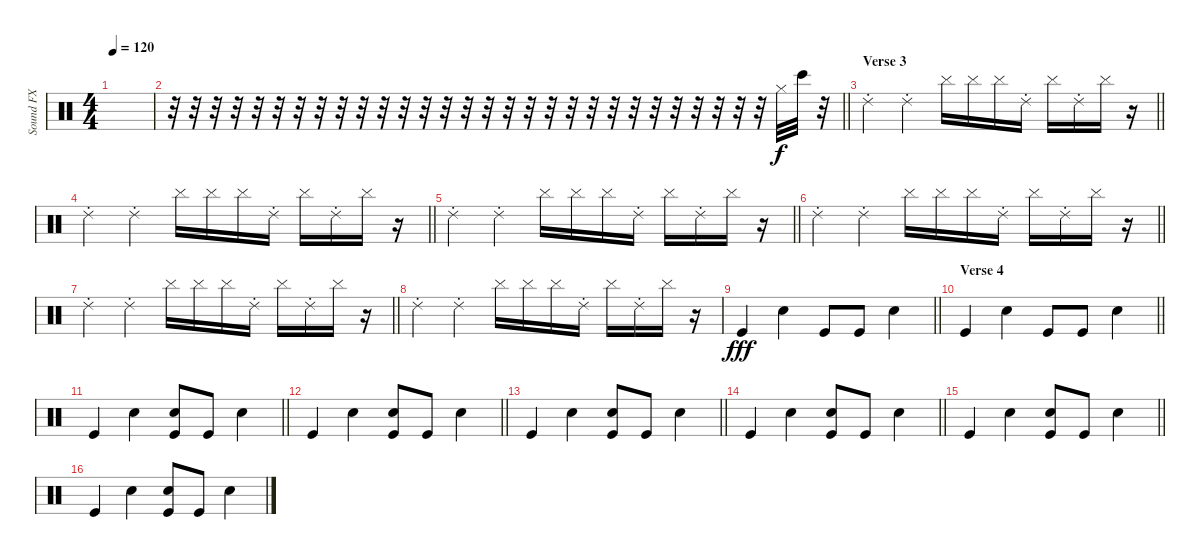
\track ("Sound FX" "Sound FX") {instrument percussion}
\staff {score}
\articulation defaults
\ts (4 4)
\tempo 120
\clef neutral
\ks c
|
\barLineRight lightlight
r.32 r.32 r.32 r.32 r.32 r.32 r.32 r.32 r.32 r.32 r.32 r.32 r.32 r.32 r.32 r.32 r.32 r.32 r.32 r.32 r.32 r.32 r.32 r.32 r.32 r.32 r.32 r.32 r.32 "Hi-Hat (closed)".32 "Bongo High (hit)".32 r.32 |
\section ("" "Verse 3")
\barLineRight lightlight "Ride (choke) 2".4 "Ride (choke) 2".4 "Cymbal (hit)".16 "Cymbal (hit)".16 "Cymbal (hit)".16 "Ride (choke) 2".16 "Cymbal (hit)".16 "Ride (choke) 2".16 "Cymbal (hit)".16
r.16 |
\barLineRight lightlight "Ride (choke) 2".4 "Ride (choke) 2".4 "Cymbal (hit)".16 "Cymbal (hit)".16 "Cymbal (hit)".16 "Ride (choke) 2".16 "Cymbal (hit)".16 "Ride (choke) 2".16 "Cymbal (hit)".16
r.16 |
\barLineRight lightlight "Ride (choke) 2".4 "Ride (choke) 2".4 "Cymbal (hit)".16 "Cymbal (hit)".16 "Cymbal (hit)".16 "Ride (choke) 2".16 "Cymbal (hit)".16 "Ride (choke) 2".16 "Cymbal (hit)".16
r.16 |
\barLineRight lightlight "Ride (choke) 2".4 "Ride (choke) 2".4 "Cymbal (hit)".16 "Cymbal (hit)".16 "Cymbal (hit)".16 "Ride (choke) 2".16 "Cymbal (hit)".16 "Ride (choke) 2".16 "Cymbal (hit)".16
r.16 |
\barLineRight lightlight "Ride (choke) 2".4 "Ride (choke) 2".4 "Cymbal (hit)".16 "Cymbal (hit)".16 "Cymbal (hit)".16 "Ride (choke) 2".16 "Cymbal (hit)".16 "Ride (choke) 2".16 "Cymbal (hit)".16
r.16 |
"Ride (choke) 2".4 "Ride (choke) 2".4 "Cymbal (hit)".16 "Cymbal (hit)".16 "Cymbal (hit)".16 "Ride (choke) 2".16 "Cymbal (hit)".16 "Ride (choke) 2".16 "Cymbal (hit)".16 r.16 |
\barLineRight lightlight "Kick (hit)".4{dy fff} "Hand Clap (hit)".4 "Kick (hit)".8 "Kick (hit)".8 "Hand Clap (hit)".4
|
\section ("" "Verse 4")
\barLineRight lightlight "Kick (hit)".4 "Hand Clap (hit)".4 "Kick (hit)".8 "Kick (hit)".8 "Hand Clap (hit)".4
|
\barLineRight lightlight "Kick (hit)".4 "Hand Clap (hit)".4
("Metronome (bell)" "Kick (hit)").8 "Kick (hit)".8 "Hand Clap (hit)".4 |
\barLineRight lightlight "Kick (hit)".4 "Hand Clap (hit)".4
("Metronome (bell)" "Kick (hit)").8 "Kick (hit)".8 "Hand Clap (hit)".4 |
\barLineRight lightlight "Kick (hit)".4 "Hand Clap (hit)".4
("Metronome (bell)" "Kick (hit)").8 "Kick (hit)".8 "Hand Clap (hit)".4 |
\barLineRight lightlight "Kick (hit)".4 "Hand Clap (hit)".4
("Metronome (bell)" "Kick (hit)").8 "Kick (hit)".8 "Hand Clap (hit)".4 |
\barLineRight lightlight "Kick (hit)".4 "Hand Clap (hit)".4
("Metronome (bell)" "Kick (hit)").8 "Kick (hit)".8 "Hand Clap (hit)".4 |
"Kick (hit)".4 "Hand Clap (hit)".4 ("Metronome (bell)" "Kick (hit)").8 "Kick (hit)".8 "Hand Clap (hit)".4
